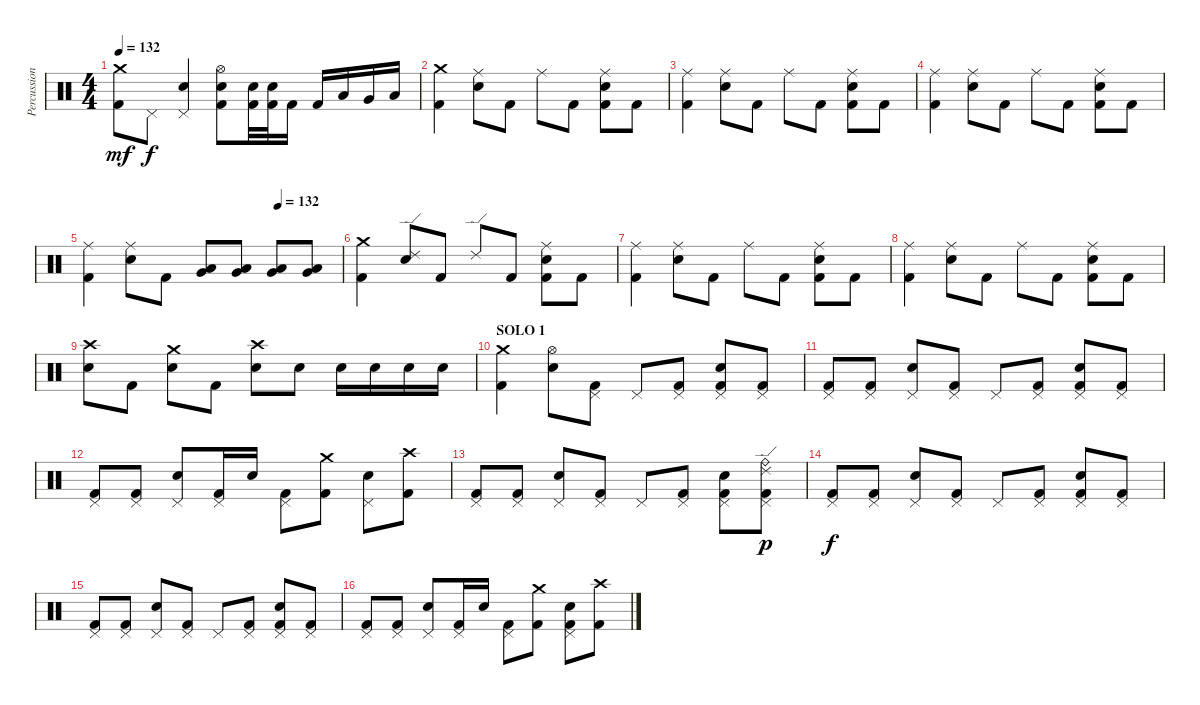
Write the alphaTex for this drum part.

\track ("Percussions" "Percussion") {instrument percussion}
\staff {score}
\articulation defaults
\ts (4 4)
\tempo 132
\clef neutral
\ks c
("Crash medium (hit)" "Kick (hit) 2").8{dy mf} "Pedal Hi-Hat (hit)".8{dy f} ("Pedal Hi-Hat (hit)" "Electric Snare (hit)").4 ("Hi-Hat (open)" "Electric Snare (hit)" "Kick (hit) 2").8 ("Electric Snare (hit)" "Kick (hit) 2").32 ("Electric Snare (hit)" "Kick (hit) 2").32 "Kick (hit) 2".16 "Kick (hit) 2".16 "Low Tom (hit)".16 "Very Low Tom (hit)".16 "Low Floor Tom (hit)".16 |
("Crash medium (hit)" "Kick (hit) 2").4 ("Ride (middle)" "Electric Snare (hit)").8 "Kick (hit) 2".8 "Ride (middle)".8 "Kick (hit) 2".8 ("Ride (middle)" "Electric Snare (hit)" "Kick (hit) 2").8 "Kick (hit) 2".8 |
("Ride (middle)" "Kick (hit) 2").4 ("Ride (middle)" "Electric Snare (hit)").8 "Kick (hit) 2".8 "Ride (middle)".8 "Kick (hit) 2".8 ("Ride (middle)" "Electric Snare (hit)" "Kick (hit) 2").8 "Kick (hit) 2".8 |
("Ride (middle)" "Kick (hit) 2").4 ("Ride (middle)" "Electric Snare (hit)").8 "Kick (hit) 2".8 "Ride (middle)".8 "Kick (hit) 2".8 ("Ride (middle)" "Electric Snare (hit)" "Kick (hit) 2").8 "Kick (hit) 2".8 |
\tempo (132 0.75)
("Ride (middle)" "Kick (hit) 2").4 ("Ride (middle)" "Electric Snare (hit)").8 "Kick (hit) 2".8 ("Low Tom (hit)" "Very Low Tom (hit)").8 ("Low Tom (hit)" "Very Low Tom (hit)").8 ("Low Tom (hit)" "Very Low Tom (hit)").8 ("Low Tom (hit)" "Very Low Tom (hit)").8 |
("Crash medium (hit)" "Kick (hit) 2").4 ("Ride (edge) 2" "Electric Snare (hit)").8 "Kick (hit) 2".8 "Ride (edge) 2".8 "Kick (hit) 2".8 ("Ride (middle)" "Electric Snare (hit)" "Kick (hit) 2").8 "Kick (hit) 2".8 |
("Ride (middle)" "Kick (hit) 2").4 ("Ride (middle)" "Electric Snare (hit)").8 "Kick (hit) 2".8 "Ride (middle)".8 "Kick (hit) 2".8 ("Ride (middle)" "Electric Snare (hit)" "Kick (hit) 2").8 "Kick (hit) 2".8 |
("Ride (middle)" "Kick (hit) 2").4 ("Ride (middle)" "Electric Snare (hit)").8 "Kick (hit) 2".8 "Ride (middle)".8 "Kick (hit) 2".8 ("Ride (middle)" "Electric Snare (hit)" "Kick (hit) 2").8 "Kick (hit) 2".8 |
("Crash high (hit)" "Electric Snare (hit)").8 "Kick (hit) 2".8 ("Crash medium (hit)" "Electric Snare (hit)").8 "Kick (hit) 2".8 ("Crash high (hit)" "Electric Snare (hit)").8 "Electric Snare (hit)".8 "Electric Snare (hit)".16 "Electric Snare (hit)".16 "Electric Snare (hit)".16 "Electric Snare (hit)".16 |
\section ("" "SOLO 1")
("Crash medium (hit)" "Kick (hit) 2").4 ("Hi-Hat (open)" "Electric Snare (hit)").8 ("Pedal Hi-Hat (hit)" "Kick (hit) 2").8 "Pedal Hi-Hat (hit)".8 ("Pedal Hi-Hat (hit)" "Kick (hit) 2").8 ("Pedal Hi-Hat (hit)" "Electric Snare (hit)" "Kick (hit) 2").8 ("Pedal Hi-Hat (hit)" "Kick (hit) 2").8 |
("Pedal Hi-Hat (hit)" "Kick (hit) 2").8 ("Pedal Hi-Hat (hit)" "Kick (hit) 2").8 ("Pedal Hi-Hat (hit)" "Electric Snare (hit)").8 ("Pedal Hi-Hat (hit)" "Kick (hit) 2").8 "Pedal Hi-Hat (hit)".8 ("Pedal Hi-Hat (hit)" "Kick (hit) 2").8 ("Pedal Hi-Hat (hit)" "Electric Snare (hit)" "Kick (hit) 2").8 ("Pedal Hi-Hat (hit)" "Kick (hit) 2").8 |
("Pedal Hi-Hat (hit)" "Kick (hit) 2").8 ("Pedal Hi-Hat (hit)" "Kick (hit) 2").8 ("Pedal Hi-Hat (hit)" "Electric Snare (hit)").8 ("Pedal Hi-Hat (hit)" "Kick (hit) 2").16 "Electric Snare (hit)".16 ("Pedal Hi-Hat (hit)" "Kick (hit) 2").8 ("Crash medium (hit)" "Kick (hit) 2").8 ("Pedal Hi-Hat (hit)" "Electric Snare (hit)").8 ("Crash high (hit)" "Kick (hit) 2").8 |
("Pedal Hi-Hat (hit)" "Kick (hit) 2").8 ("Pedal Hi-Hat (hit)" "Kick (hit) 2").8 ("Pedal Hi-Hat (hit)" "Electric Snare (hit)").8 ("Pedal Hi-Hat (hit)" "Kick (hit) 2").8 "Pedal Hi-Hat (hit)".8 ("Pedal Hi-Hat (hit)" "Kick (hit) 2").8 ("Pedal Hi-Hat (hit)" "Electric Snare (hit)" "Kick (hit) 2").8 ("Pedal Hi-Hat (hit)" "Ride (bell)" "Ride (edge) 2" "Kick (hit) 2").8{dy p} |
("Pedal Hi-Hat (hit)" "Kick (hit) 2").8{dy f} ("Pedal Hi-Hat (hit)" "Kick (hit) 2").8 ("Pedal Hi-Hat (hit)" "Electric Snare (hit)").8 ("Pedal Hi-Hat (hit)" "Kick (hit) 2").8 "Pedal Hi-Hat (hit)".8 ("Pedal Hi-Hat (hit)" "Kick (hit) 2").8 ("Pedal Hi-Hat (hit)" "Electric Snare (hit)" "Kick (hit) 2").8 ("Pedal Hi-Hat (hit)" "Kick (hit) 2").8 |
("Pedal Hi-Hat (hit)" "Kick (hit) 2").8 ("Pedal Hi-Hat (hit)" "Kick (hit) 2").8 ("Pedal Hi-Hat (hit)" "Electric Snare (hit)").8 ("Pedal Hi-Hat (hit)" "Kick (hit) 2").8 "Pedal Hi-Hat (hit)".8 ("Pedal Hi-Hat (hit)" "Kick (hit) 2").8 ("Pedal Hi-Hat (hit)" "Electric Snare (hit)" "Kick (hit) 2").8 ("Pedal Hi-Hat (hit)" "Kick (hit) 2").8 |
("Pedal Hi-Hat (hit)" "Kick (hit) 2").8 ("Pedal Hi-Hat (hit)" "Kick (hit) 2").8 ("Pedal Hi-Hat (hit)" "Electric Snare (hit)").8 ("Pedal Hi-Hat (hit)" "Kick (hit) 2").16 "Electric Snare (hit)".16 ("Pedal Hi-Hat (hit)" "Kick (hit) 2").8 ("Crash medium (hit)" "Kick (hit) 2").8 ("Pedal Hi-Hat (hit)" "Electric Snare (hit)" "Kick (hit) 2").8 ("Crash high (hit)" "Kick (hit) 2").8
